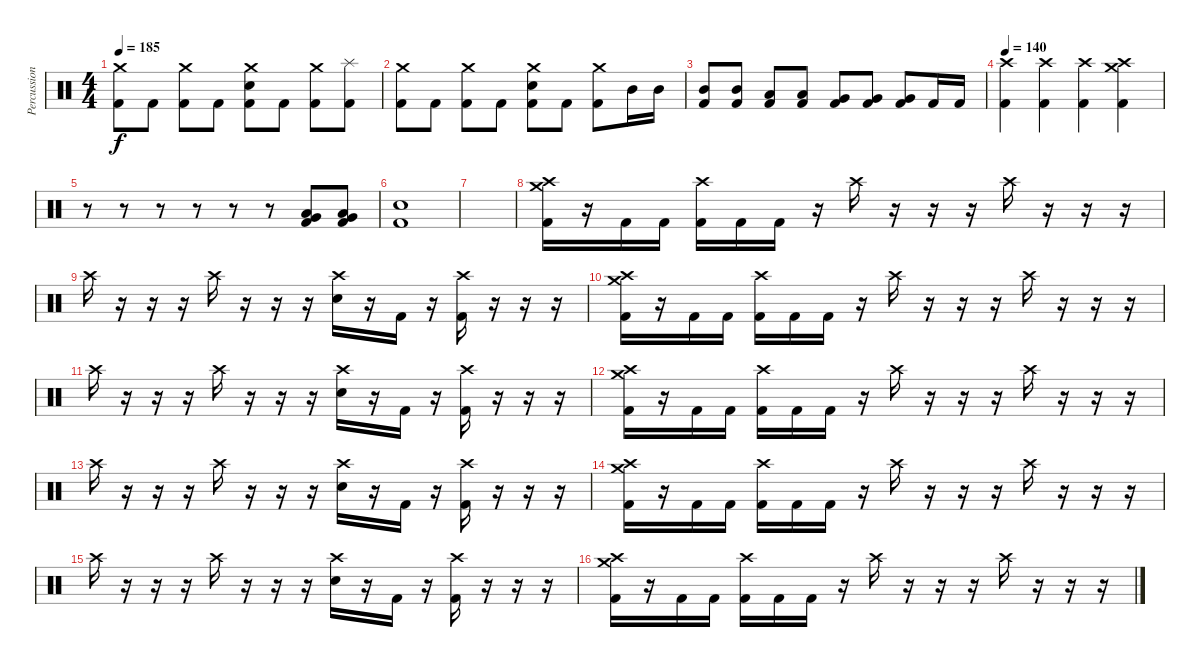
\track ("Percussion" "Percussion") {instrument percussion}
\staff {score}
\articulation defaults
\ts (4 4)
\tempo 185
\clef neutral
\ks c
("Crash medium (hit)" "Kick (hit) 2").8{dy f} "Kick (hit) 2".8 ("Crash medium (hit)" "Kick (hit) 2").8 "Kick (hit) 2".8 ("Crash medium (hit)" "Snare (hit) 2" "Kick (hit) 2").8 "Kick (hit) 2".8 ("Crash medium (hit)" "Kick (hit) 2").8 ("Splash (hit)" "Kick (hit) 2").8 |
("Crash medium (hit)" "Kick (hit) 2").8 "Kick (hit) 2".8 ("Crash medium (hit)" "Kick (hit) 2").8 "Kick (hit) 2".8 ("Crash medium (hit)" "Snare (hit) 2" "Kick (hit) 2").8 "Kick (hit) 2".8 ("Crash medium (hit)" "Kick (hit) 2").8 "Mid Tom (hit)".16 "Mid Tom (hit)".16 |
("Mid Tom (hit)" "Kick (hit) 2").8 ("Mid Tom (hit)" "Kick (hit) 2").8 ("Low Tom (hit)" "Kick (hit) 2").8 ("Low Tom (hit)" "Kick (hit) 2").8 ("Very Low Tom (hit)" "Kick (hit) 2").8 ("Very Low Tom (hit)" "Kick (hit) 2").8 ("Very Low Tom (hit)" "Kick (hit) 2").8 "Kick (hit) 2".16 "Kick (hit) 2".16 |
\tempo 140
("Crash high (hit)" "Kick (hit) 2").4 ("Crash high (hit)" "Kick (hit) 2").4 ("Crash high (hit)" "Kick (hit) 2").4 ("Crash high (hit)" "Crash medium (hit)" "Kick (hit) 2").4 |
r.8 r.8 r.8 r.8 r.8 r.8 ("Very Low Tom (hit)" "Low Tom (hit)" "Kick (hit) 2").8 ("Very Low Tom (hit)" "Low Tom (hit)" "Kick (hit) 2").8 |
("Snare (hit) 2" "Kick (hit) 2").1 |
|
("Crash high (hit)" "Crash medium (hit)" "Kick (hit) 2").16 r.16 "Kick (hit) 2".16 "Kick (hit) 2".16 ("Crash high (hit)" "Kick (hit) 2").16 "Kick (hit) 2".16 "Kick (hit) 2".16 r.16 "Crash high (hit)".16 r.16 r.16 r.16 "Crash high (hit)".16 r.16 r.16 r.16 |
"Crash high (hit)".16 r.16 r.16 r.16 "Crash high (hit)".16 r.16 r.16 r.16 ("Crash high (hit)" "Snare (hit) 2").16 r.16 "Kick (hit) 2".16 r.16 ("Crash high (hit)" "Kick (hit) 2").16 r.16 r.16 r.16 |
("Crash high (hit)" "Crash medium (hit)" "Kick (hit) 2").16 r.16 "Kick (hit) 2".16 "Kick (hit) 2".16 ("Crash high (hit)" "Kick (hit) 2").16 "Kick (hit) 2".16 "Kick (hit) 2".16 r.16 "Crash high (hit)".16 r.16 r.16 r.16 "Crash high (hit)".16 r.16 r.16 r.16 |
"Crash high (hit)".16 r.16 r.16 r.16 "Crash high (hit)".16 r.16 r.16 r.16 ("Crash high (hit)" "Snare (hit) 2").16 r.16 "Kick (hit) 2".16 r.16 ("Crash high (hit)" "Kick (hit) 2").16 r.16 r.16 r.16 |
("Crash high (hit)" "Crash medium (hit)" "Kick (hit) 2").16 r.16 "Kick (hit) 2".16 "Kick (hit) 2".16 ("Crash high (hit)" "Kick (hit) 2").16 "Kick (hit) 2".16 "Kick (hit) 2".16 r.16 "Crash high (hit)".16 r.16 r.16 r.16 "Crash high (hit)".16 r.16 r.16 r.16 |
"Crash high (hit)".16 r.16 r.16 r.16 "Crash high (hit)".16 r.16 r.16 r.16 ("Crash high (hit)" "Snare (hit) 2").16 r.16 "Kick (hit) 2".16 r.16 ("Crash high (hit)" "Kick (hit) 2").16 r.16 r.16 r.16 |
("Crash high (hit)" "Crash medium (hit)" "Kick (hit) 2").16 r.16 "Kick (hit) 2".16 "Kick (hit) 2".16 ("Crash high (hit)" "Kick (hit) 2").16 "Kick (hit) 2".16 "Kick (hit) 2".16 r.16 "Crash high (hit)".16 r.16 r.16 r.16 "Crash high (hit)".16 r.16 r.16 r.16 |
"Crash high (hit)".16 r.16 r.16 r.16 "Crash high (hit)".16 r.16 r.16 r.16 ("Crash high (hit)" "Snare (hit) 2").16 r.16 "Kick (hit) 2".16 r.16 ("Crash high (hit)" "Kick (hit) 2").16 r.16 r.16 r.16 |
("Crash high (hit)" "Crash medium (hit)" "Kick (hit) 2").16 r.16 "Kick (hit) 2".16 "Kick (hit) 2".16 ("Crash high (hit)" "Kick (hit) 2").16 "Kick (hit) 2".16 "Kick (hit) 2".16 r.16 "Crash high (hit)".16 r.16 r.16 r.16 "Crash high (hit)".16 r.16 r.16 r.16
